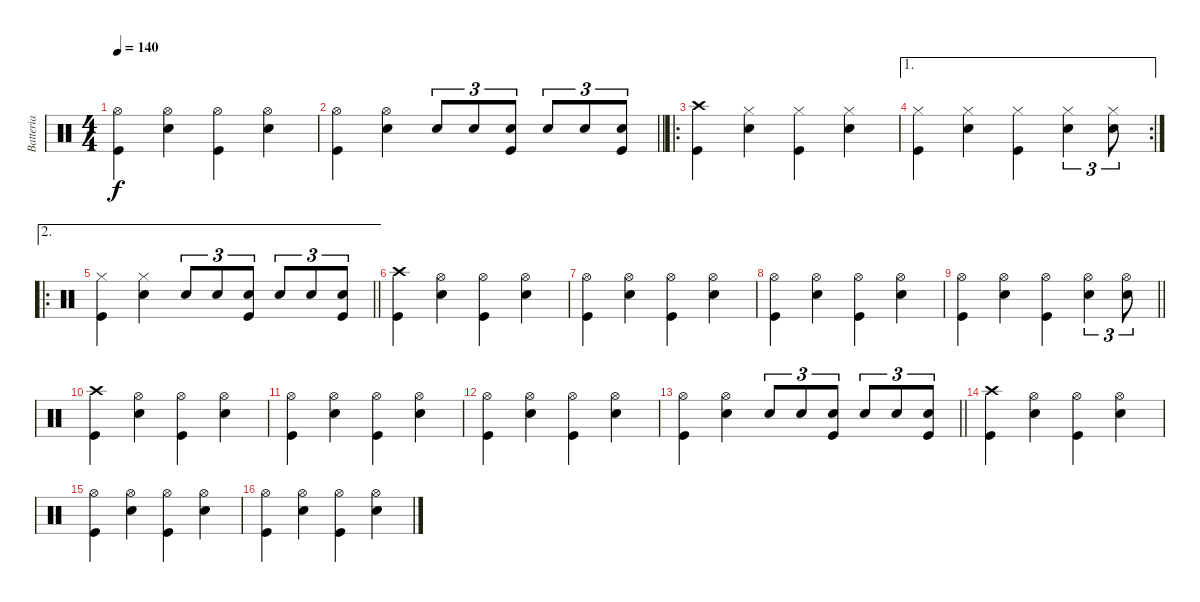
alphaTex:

\track ("Batteria" "Batteria") {instrument percussion}
\staff {score}
\articulation defaults
\ts (4 4)
\tempo 140
\clef neutral
\ks c
("Hi-Hat (open)" "Kick (hit)").4{dy f} ("Snare (hit) 2" "Hi-Hat (open)").4 ("Hi-Hat (open)" "Kick (hit)").4 ("Snare (hit) 2" "Hi-Hat (open)").4 |
\barLineRight lightlight
("Hi-Hat (open)" "Kick (hit)").4 ("Snare (hit) 2" "Hi-Hat (open)").4 "Snare (hit) 2".8{tu (3 2)} "Snare (hit) 2".8{tu (3 2)} ("Snare (hit) 2" "Kick (hit)").8{tu (3 2)} "Snare (hit) 2".8{tu (3 2)} "Snare (hit) 2".8{tu (3 2)} ("Snare (hit) 2" "Kick (hit)").8{tu (3 2)} |
\ro
("Crash high (hit)" "Kick (hit)").4 ("Snare (hit) 2" "Hi-Hat (closed)").4 ("Hi-Hat (closed)" "Kick (hit)").4 ("Hi-Hat (closed)" "Snare (hit) 2").4 |
\ae 1
\rc 2
("Hi-Hat (closed)" "Kick (hit)").4 ("Hi-Hat (closed)" "Snare (hit) 2").4 ("Hi-Hat (closed)" "Kick (hit)").4 ("Hi-Hat (closed)" "Snare (hit) 2").4{tu (3 2)} ("Hi-Hat (closed)" "Snare (hit) 2").8{tu (3 2)} |
\ae 2
\ro
\barLineRight lightlight
("Hi-Hat (closed)" "Kick (hit)").4 ("Hi-Hat (closed)" "Snare (hit) 2").4 "Snare (hit) 2".8{tu (3 2)} "Snare (hit) 2".8{tu (3 2)} ("Snare (hit) 2" "Kick (hit)").8{tu (3 2)} "Snare (hit) 2".8{tu (3 2)} "Snare (hit) 2".8{tu (3 2)} ("Snare (hit) 2" "Kick (hit)").8{tu (3 2)} |
("Crash high (hit)" "Kick (hit)").4 ("Snare (hit) 2" "Hi-Hat (open)").4 ("Hi-Hat (open)" "Kick (hit)").4 ("Hi-Hat (open)" "Snare (hit) 2").4 |
("Hi-Hat (open)" "Kick (hit)").4 ("Snare (hit) 2" "Hi-Hat (open)").4 ("Hi-Hat (open)" "Kick (hit)").4 ("Snare (hit) 2" "Hi-Hat (open)").4 |
("Hi-Hat (open)" "Kick (hit)").4 ("Snare (hit) 2" "Hi-Hat (open)").4 ("Hi-Hat (open)" "Kick (hit)").4 ("Snare (hit) 2" "Hi-Hat (open)").4 |
\barLineRight lightlight
("Hi-Hat (open)" "Kick (hit)").4 ("Snare (hit) 2" "Hi-Hat (open)").4 ("Hi-Hat (open)" "Kick (hit)").4 ("Hi-Hat (open)" "Snare (hit) 2").4{tu (3 2)} ("Hi-Hat (open)" "Snare (hit) 2").8{tu (3 2)} |
("Crash high (hit)" "Kick (hit)").4 ("Snare (hit) 2" "Hi-Hat (open)").4 ("Hi-Hat (open)" "Kick (hit)").4 ("Hi-Hat (open)" "Snare (hit) 2").4 |
("Hi-Hat (open)" "Kick (hit)").4 ("Snare (hit) 2" "Hi-Hat (open)").4 ("Hi-Hat (open)" "Kick (hit)").4 ("Snare (hit) 2" "Hi-Hat (open)").4 |
("Hi-Hat (open)" "Kick (hit)").4 ("Snare (hit) 2" "Hi-Hat (open)").4 ("Hi-Hat (open)" "Kick (hit)").4 ("Snare (hit) 2" "Hi-Hat (open)").4 |
\barLineRight lightlight
("Hi-Hat (open)" "Kick (hit)").4 ("Snare (hit) 2" "Hi-Hat (open)").4 "Snare (hit) 2".8{tu (3 2)} "Snare (hit) 2".8{tu (3 2)} ("Snare (hit) 2" "Kick (hit)").8{tu (3 2)} "Snare (hit) 2".8{tu (3 2)} "Snare (hit) 2".8{tu (3 2)} ("Snare (hit) 2" "Kick (hit)").8{tu (3 2)} |
("Crash high (hit)" "Kick (hit)").4 ("Snare (hit) 2" "Hi-Hat (open)").4 ("Hi-Hat (open)" "Kick (hit)").4 ("Hi-Hat (open)" "Snare (hit) 2").4 |
("Hi-Hat (open)" "Kick (hit)").4 ("Snare (hit) 2" "Hi-Hat (open)").4 ("Hi-Hat (open)" "Kick (hit)").4 ("Snare (hit) 2" "Hi-Hat (open)").4 |
("Hi-Hat (open)" "Kick (hit)").4 ("Snare (hit) 2" "Hi-Hat (open)").4 ("Hi-Hat (open)" "Kick (hit)").4 ("Snare (hit) 2" "Hi-Hat (open)").4
